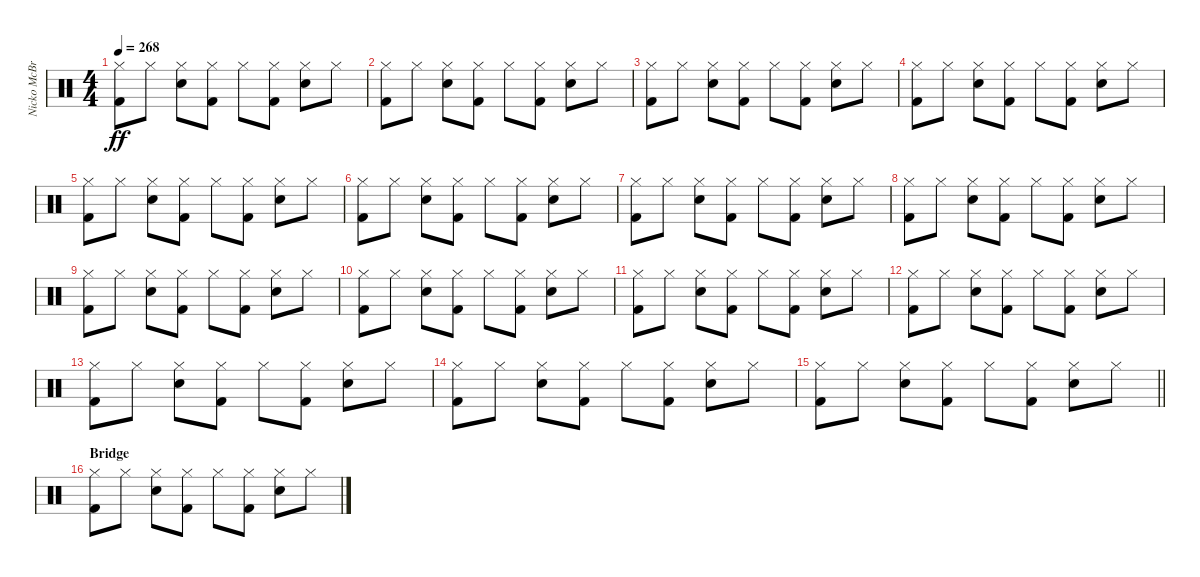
\track ("Nicko McBrain" "Nicko McBr") {instrument percussion}
\staff {score}
\articulation defaults
\ts (4 4)
\tempo 268
\clef neutral
\ks c
("Kick (hit) 2" "Hi-Hat (closed)").8{dy ff} "Hi-Hat (closed)".8 ("Snare (hit) 2" "Hi-Hat (closed)").8 ("Kick (hit) 2" "Hi-Hat (closed)").8 "Hi-Hat (closed)".8 ("Kick (hit) 2" "Hi-Hat (closed)").8 ("Snare (hit) 2" "Hi-Hat (closed)").8 "Hi-Hat (closed)".8 |
("Kick (hit) 2" "Hi-Hat (closed)").8 "Hi-Hat (closed)".8 ("Snare (hit) 2" "Hi-Hat (closed)").8 ("Kick (hit) 2" "Hi-Hat (closed)").8 "Hi-Hat (closed)".8 ("Kick (hit) 2" "Hi-Hat (closed)").8 ("Snare (hit) 2" "Hi-Hat (closed)").8 "Hi-Hat (closed)".8 |
("Kick (hit) 2" "Hi-Hat (closed)").8 "Hi-Hat (closed)".8 ("Snare (hit) 2" "Hi-Hat (closed)").8 ("Kick (hit) 2" "Hi-Hat (closed)").8 "Hi-Hat (closed)".8 ("Kick (hit) 2" "Hi-Hat (closed)").8 ("Snare (hit) 2" "Hi-Hat (closed)").8 "Hi-Hat (closed)".8 |
("Kick (hit) 2" "Hi-Hat (closed)").8 "Hi-Hat (closed)".8 ("Snare (hit) 2" "Hi-Hat (closed)").8 ("Kick (hit) 2" "Hi-Hat (closed)").8 "Hi-Hat (closed)".8 ("Kick (hit) 2" "Hi-Hat (closed)").8 ("Snare (hit) 2" "Hi-Hat (closed)").8 "Hi-Hat (closed)".8 |
("Kick (hit) 2" "Hi-Hat (closed)").8 "Hi-Hat (closed)".8 ("Snare (hit) 2" "Hi-Hat (closed)").8 ("Kick (hit) 2" "Hi-Hat (closed)").8 "Hi-Hat (closed)".8 ("Kick (hit) 2" "Hi-Hat (closed)").8 ("Snare (hit) 2" "Hi-Hat (closed)").8 "Hi-Hat (closed)".8 |
("Kick (hit) 2" "Hi-Hat (closed)").8 "Hi-Hat (closed)".8 ("Snare (hit) 2" "Hi-Hat (closed)").8 ("Kick (hit) 2" "Hi-Hat (closed)").8 "Hi-Hat (closed)".8 ("Kick (hit) 2" "Hi-Hat (closed)").8 ("Snare (hit) 2" "Hi-Hat (closed)").8 "Hi-Hat (closed)".8 |
("Kick (hit) 2" "Hi-Hat (closed)").8 "Hi-Hat (closed)".8 ("Snare (hit) 2" "Hi-Hat (closed)").8 ("Kick (hit) 2" "Hi-Hat (closed)").8 "Hi-Hat (closed)".8 ("Kick (hit) 2" "Hi-Hat (closed)").8 ("Snare (hit) 2" "Hi-Hat (closed)").8 "Hi-Hat (closed)".8 |
("Kick (hit) 2" "Hi-Hat (closed)").8 "Hi-Hat (closed)".8 ("Snare (hit) 2" "Hi-Hat (closed)").8 ("Kick (hit) 2" "Hi-Hat (closed)").8 "Hi-Hat (closed)".8 ("Kick (hit) 2" "Hi-Hat (closed)").8 ("Snare (hit) 2" "Hi-Hat (closed)").8 "Hi-Hat (closed)".8 |
("Kick (hit) 2" "Hi-Hat (closed)").8 "Hi-Hat (closed)".8 ("Snare (hit) 2" "Hi-Hat (closed)").8 ("Kick (hit) 2" "Hi-Hat (closed)").8 "Hi-Hat (closed)".8 ("Kick (hit) 2" "Hi-Hat (closed)").8 ("Snare (hit) 2" "Hi-Hat (closed)").8 "Hi-Hat (closed)".8 |
("Kick (hit) 2" "Hi-Hat (closed)").8 "Hi-Hat (closed)".8 ("Snare (hit) 2" "Hi-Hat (closed)").8 ("Kick (hit) 2" "Hi-Hat (closed)").8 "Hi-Hat (closed)".8 ("Kick (hit) 2" "Hi-Hat (closed)").8 ("Snare (hit) 2" "Hi-Hat (closed)").8 "Hi-Hat (closed)".8 |
("Kick (hit) 2" "Hi-Hat (closed)").8 "Hi-Hat (closed)".8 ("Snare (hit) 2" "Hi-Hat (closed)").8 ("Kick (hit) 2" "Hi-Hat (closed)").8 "Hi-Hat (closed)".8 ("Kick (hit) 2" "Hi-Hat (closed)").8 ("Snare (hit) 2" "Hi-Hat (closed)").8 "Hi-Hat (closed)".8 |
("Kick (hit) 2" "Hi-Hat (closed)").8 "Hi-Hat (closed)".8 ("Snare (hit) 2" "Hi-Hat (closed)").8 ("Kick (hit) 2" "Hi-Hat (closed)").8 "Hi-Hat (closed)".8 ("Kick (hit) 2" "Hi-Hat (closed)").8 ("Snare (hit) 2" "Hi-Hat (closed)").8 "Hi-Hat (closed)".8 |
("Kick (hit) 2" "Hi-Hat (closed)").8 "Hi-Hat (closed)".8 ("Snare (hit) 2" "Hi-Hat (closed)").8 ("Kick (hit) 2" "Hi-Hat (closed)").8 "Hi-Hat (closed)".8 ("Kick (hit) 2" "Hi-Hat (closed)").8 ("Snare (hit) 2" "Hi-Hat (closed)").8 "Hi-Hat (closed)".8 |
("Kick (hit) 2" "Hi-Hat (closed)").8 "Hi-Hat (closed)".8 ("Snare (hit) 2" "Hi-Hat (closed)").8 ("Kick (hit) 2" "Hi-Hat (closed)").8 "Hi-Hat (closed)".8 ("Kick (hit) 2" "Hi-Hat (closed)").8 ("Snare (hit) 2" "Hi-Hat (closed)").8 "Hi-Hat (closed)".8 |
\barLineRight lightlight
("Kick (hit) 2" "Hi-Hat (closed)").8 "Hi-Hat (closed)".8 ("Snare (hit) 2" "Hi-Hat (closed)").8 ("Kick (hit) 2" "Hi-Hat (closed)").8 "Hi-Hat (closed)".8 ("Kick (hit) 2" "Hi-Hat (closed)").8 ("Snare (hit) 2" "Hi-Hat (closed)").8 "Hi-Hat (closed)".8 |
\section ("" "Bridge")
("Kick (hit) 2" "Hi-Hat (closed)").8 "Hi-Hat (closed)".8 ("Snare (hit) 2" "Hi-Hat (closed)").8 ("Kick (hit) 2" "Hi-Hat (closed)").8 "Hi-Hat (closed)".8 ("Kick (hit) 2" "Hi-Hat (closed)").8 ("Snare (hit) 2" "Hi-Hat (closed)").8 "Hi-Hat (closed)".8
